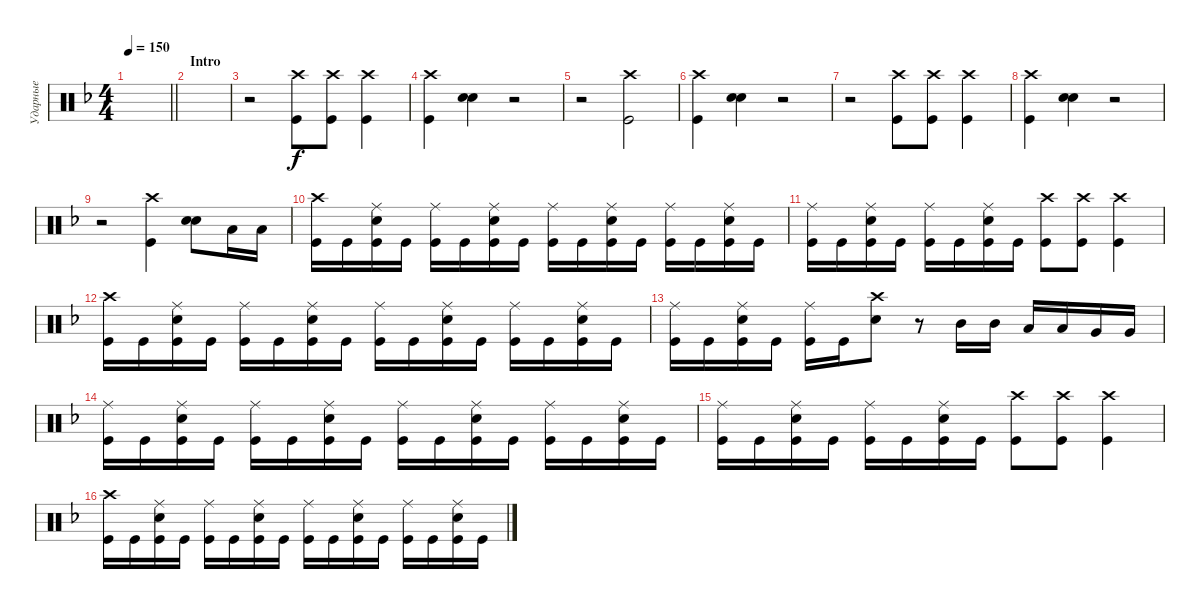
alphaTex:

\track ("Ударные" "Ударные") {instrument percussion}
\staff {score}
\articulation defaults
\ts (4 4)
\tempo 150
\clef neutral
\barLineRight lightlight
\ks dminor
|
\section ("" "Intro")
|
r.2 ("Kick (hit)" "Crash high (hit)").8 ("Kick (hit)" "Crash high (hit)").8 ("Kick (hit)" "Crash high (hit)").4 |
("Kick (hit)" "Crash high (hit)").4 ("Snare (hit) 2" "Snare (hit) 2").4{bd 480} r.2 |
r.2 ("Kick (hit)" "Crash high (hit)").2 |
("Kick (hit)" "Crash high (hit)").4 ("Snare (hit) 2" "Snare (hit) 2").4{bd 480} r.2 |
r.2 ("Kick (hit)" "Crash high (hit)").8 ("Kick (hit)" "Crash high (hit)").8 ("Kick (hit)" "Crash high (hit)").4 |
("Kick (hit)" "Crash high (hit)").4 ("Snare (hit) 2" "Snare (hit) 2").4{bd 480} r.2 |
r.2 ("Kick (hit)" "Crash high (hit)").4 ("Snare (hit) 2" "Snare (hit) 2").8{bd 240} "Low Tom (hit)".16 "Low Tom (hit)".16 |
("Kick (hit)" "Crash high (hit)").16 "Kick (hit)".16 ("Kick (hit)" "Snare (hit) 2" "Ride (middle)").16 "Kick (hit)".16 ("Kick (hit)" "Ride (middle)").16 "Kick (hit)".16 ("Kick (hit)" "Snare (hit) 2" "Ride (middle)").16 "Kick (hit)".16 ("Kick (hit)" "Ride (middle)").16 "Kick (hit)".16 ("Snare (hit) 2" "Kick (hit)" "Ride (middle)").16 "Kick (hit)".16 ("Kick (hit)" "Ride (middle)").16 "Kick (hit)".16 ("Kick (hit)" "Snare (hit) 2" "Ride (middle)").16 "Kick (hit)".16 |
("Kick (hit)" "Ride (middle)").16 "Kick (hit)".16 ("Kick (hit)" "Snare (hit) 2" "Ride (middle)").16 "Kick (hit)".16 ("Kick (hit)" "Ride (middle)").16 "Kick (hit)".16 ("Kick (hit)" "Snare (hit) 2" "Ride (middle)").16 "Kick (hit)".16 ("Kick (hit)" "Crash high (hit)").8 ("Kick (hit)" "Crash high (hit)").8 ("Kick (hit)" "Crash high (hit)").4 |
("Kick (hit)" "Crash high (hit)").16 "Kick (hit)".16 ("Kick (hit)" "Snare (hit) 2" "Ride (middle)").16 "Kick (hit)".16 ("Kick (hit)" "Ride (middle)").16 "Kick (hit)".16 ("Kick (hit)" "Snare (hit) 2" "Ride (middle)").16 "Kick (hit)".16 ("Kick (hit)" "Ride (middle)").16 "Kick (hit)".16 ("Snare (hit) 2" "Kick (hit)" "Ride (middle)").16 "Kick (hit)".16 ("Kick (hit)" "Ride (middle)").16 "Kick (hit)".16 ("Kick (hit)" "Snare (hit) 2" "Ride (middle)").16 "Kick (hit)".16 |
("Kick (hit)" "Ride (middle)").16 "Kick (hit)".16 ("Kick (hit)" "Snare (hit) 2" "Ride (middle)").16 "Kick (hit)".16 ("Kick (hit)" "Ride (middle)").16 "Kick (hit)".16 ("Snare (hit) 2" "Crash high (hit)").8 r.8 "Mid Tom (hit)".16 "Mid Tom (hit)".16 "Low Tom (hit)".16 "Low Tom (hit)".16 "Very Low Tom (hit)".16 "Very Low Tom (hit)".16 |
("Kick (hit)" "Ride (middle)").16 "Kick (hit)".16 ("Kick (hit)" "Snare (hit) 2" "Ride (middle)").16 "Kick (hit)".16 ("Kick (hit)" "Ride (middle)").16 "Kick (hit)".16 ("Kick (hit)" "Snare (hit) 2" "Ride (middle)").16 "Kick (hit)".16 ("Kick (hit)" "Ride (middle)").16 "Kick (hit)".16 ("Snare (hit) 2" "Kick (hit)" "Ride (middle)").16 "Kick (hit)".16 ("Kick (hit)" "Ride (middle)").16 "Kick (hit)".16 ("Kick (hit)" "Snare (hit) 2" "Ride (middle)").16 "Kick (hit)".16 |
("Kick (hit)" "Ride (middle)").16 "Kick (hit)".16 ("Kick (hit)" "Snare (hit) 2" "Ride (middle)").16 "Kick (hit)".16 ("Kick (hit)" "Ride (middle)").16 "Kick (hit)".16 ("Kick (hit)" "Snare (hit) 2" "Ride (middle)").16 "Kick (hit)".16 ("Kick (hit)" "Crash high (hit)").8 ("Kick (hit)" "Crash high (hit)").8 ("Kick (hit)" "Crash high (hit)").4 |
("Kick (hit)" "Crash high (hit)").16 "Kick (hit)".16 ("Kick (hit)" "Snare (hit) 2" "Ride (middle)").16 "Kick (hit)".16 ("Kick (hit)" "Ride (middle)").16 "Kick (hit)".16 ("Kick (hit)" "Snare (hit) 2" "Ride (middle)").16 "Kick (hit)".16 ("Kick (hit)" "Ride (middle)").16 "Kick (hit)".16 ("Snare (hit) 2" "Kick (hit)" "Ride (middle)").16 "Kick (hit)".16 ("Kick (hit)" "Ride (middle)").16 "Kick (hit)".16 ("Kick (hit)" "Snare (hit) 2" "Ride (middle)").16 "Kick (hit)".16
